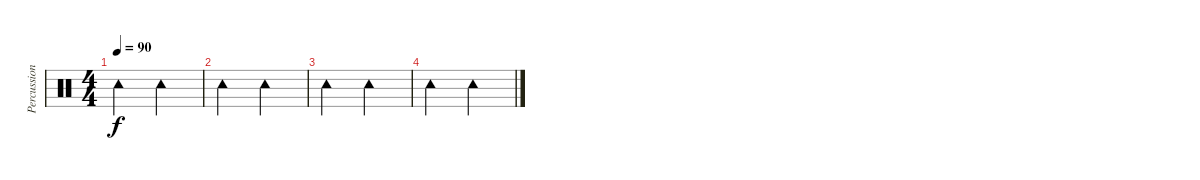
\track ("Percussions" "Percussion") {instrument percussion}
\staff {score}
\articulation defaults
\ts (4 4)
\tempo 90
\clef neutral
\ks c "Tambourine (hit)".2{dy f} "Tambourine (hit)".2
|
"Tambourine (hit)".2 "Tambourine (hit)".2 |
"Tambourine (hit)".2 "Tambourine (hit)".2 |
"Tambourine (hit)".2 "Tambourine (hit)".2
